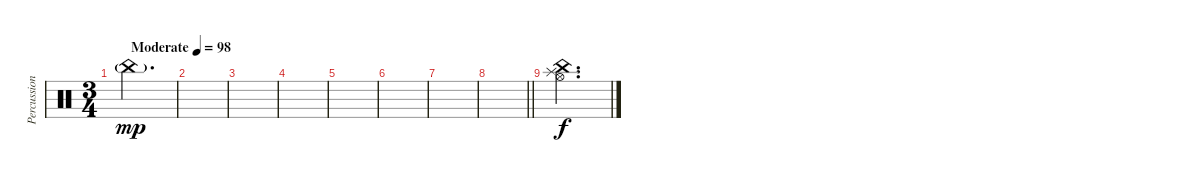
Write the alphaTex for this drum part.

\track ("Percussion" "Percussion") {instrument percussion}
\staff {score}
\articulation defaults
\ts (3 4)
\tempo (98 "Moderate")
\clef neutral
\ks c "China (hit)"{g}.2{d dy mp}
|
|
|
|
|
|
|
\barLineRight lightlight
|
("China (hit)" "Splash (hit)" "Hi-Hat (open)").2{d dy f}
